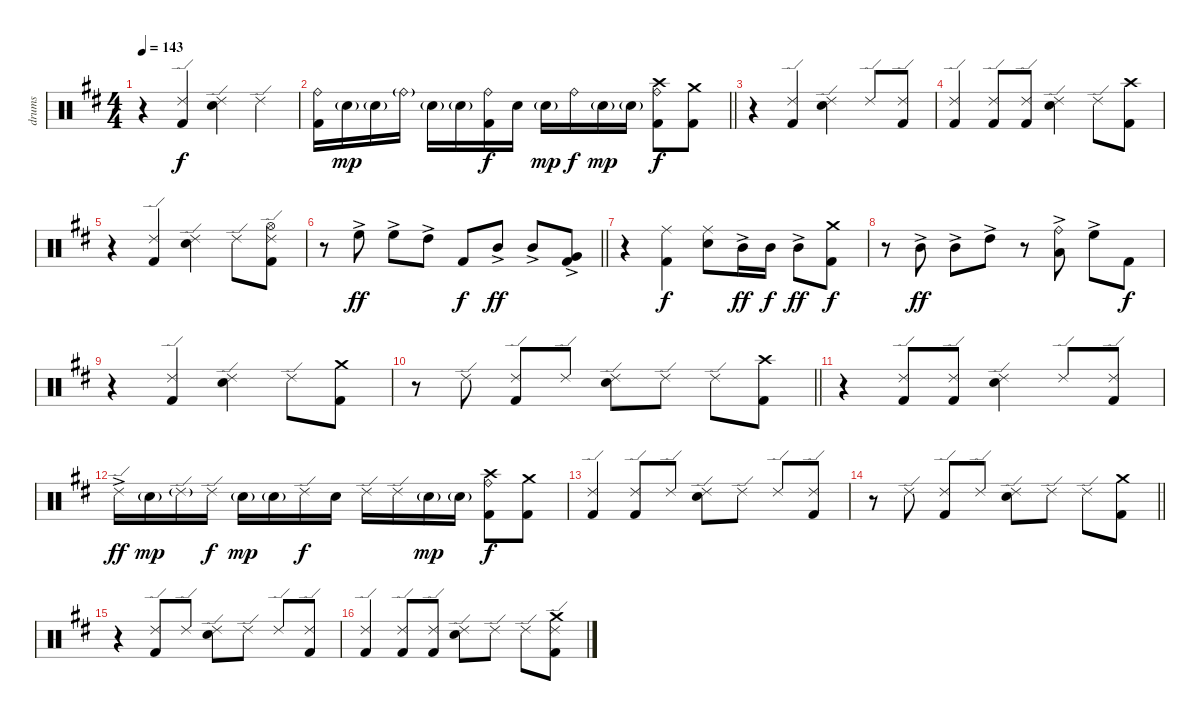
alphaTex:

\track ("drums" "drums") {instrument percussion}
\staff {score}
\articulation defaults
\ts (4 4)
\tempo 143
\clef neutral
\ks d
r.4{dy f} ("Ride (edge) 2" "Kick (hit) 2").4 ("Ride (edge) 2" "Electric Snare (hit)").4 "Ride (edge) 2".4 |
\barLineRight lightlight
("Ride (bell)" "Kick (hit) 2").16 "Electric Snare (hit)"{g}.16{dy mp} "Electric Snare (hit)"{g}.16 "Ride (bell)"{g}.16 "Electric Snare (hit)"{g}.16 "Electric Snare (hit)"{g}.16 ("Ride (bell)" "Kick (hit) 2").16{dy f} "Electric Snare (hit)".16 "Electric Snare (hit)"{g}.16{dy mp} "Ride (bell)".16{dy f} "Electric Snare (hit)"{g}.16{dy mp} "Electric Snare (hit)"{g}.16 ("Ride (bell)" "Crash high (hit)" "Kick (hit) 2").8{dy f} ("Crash medium (hit)" "Kick (hit) 2").8 |
r.4 ("Ride (edge) 2" "Kick (hit) 2").4 ("Ride (edge) 2" "Electric Snare (hit)").4 "Ride (edge) 2".8 ("Ride (edge) 2" "Kick (hit) 2").8 |
("Ride (edge) 2" "Kick (hit) 2").4 ("Ride (edge) 2" "Kick (hit) 2").8 ("Ride (edge) 2" "Kick (hit) 2").8 ("Ride (edge) 2" "Electric Snare (hit)").4 "Ride (edge) 2".8 ("Crash high (hit)" "Kick (hit) 2").8 |
r.4 ("Ride (edge) 2" "Kick (hit) 2").4 ("Ride (edge) 2" "Electric Snare (hit)").4 "Ride (edge) 2".8 ("Ride (edge) 2" "Hi-Hat (open)" "Kick (hit) 2").8 |
\barLineRight lightlight
r.8 "High Floor Tom (hit)"{ac}.8{dy ff} "High Floor Tom (hit)"{ac}.8 "High Tom (hit)"{ac}.8 "Kick (hit) 2".8{dy f} "Mid Tom (hit)"{ac}.8{dy ff} "Mid Tom (hit)"{ac}.8 ("Very Low Tom (hit)"{ac} "Kick (hit) 2").8 |
r.4 ("Ride (middle)" "Kick (hit) 2").4{dy f} ("Ride (middle)" "Electric Snare (hit)").8 "Mid Tom (hit)"{ac}.16{dy ff} "Mid Tom (hit)".16{dy f} "Mid Tom (hit)"{ac}.8{dy ff} ("Crash medium (hit)" "Kick (hit) 2").8{dy f} |
r.8 "Mid Tom (hit)"{ac}.8{dy ff} "Mid Tom (hit)"{ac}.8 "High Tom (hit)"{ac}.8 r.8 ("Ride (bell)" "Low Tom (hit)"{ac}).8 "High Floor Tom (hit)"{ac}.8 "Kick (hit) 2".8{dy f} |
r.4 ("Ride (edge) 2" "Kick (hit) 2").4 ("Ride (edge) 2" "Electric Snare (hit)").4 "Ride (edge) 2".8 ("Crash medium (hit)" "Kick (hit) 2").8 |
\barLineRight lightlight
r.8 "Ride (edge) 2".8 ("Ride (edge) 2" "Kick (hit) 2").8 "Ride (edge) 2".8 ("Ride (edge) 2" "Electric Snare (hit)").8 "Ride (edge) 2".8 "Ride (edge) 2".8 ("Crash high (hit)" "Kick (hit) 2").8 |
r.4 ("Ride (edge) 2" "Kick (hit) 2").8 ("Ride (edge) 2" "Kick (hit) 2").8 ("Ride (edge) 2" "Electric Snare (hit)").4 "Ride (edge) 2".8 ("Ride (edge) 2" "Kick (hit) 2").8 |
"Ride (edge) 2"{ac}.16{dy ff} "Electric Snare (hit)"{g}.16{dy mp} "Ride (edge) 2"{g}.16 "Ride (edge) 2".16{dy f} "Electric Snare (hit)"{g}.16{dy mp} "Electric Snare (hit)"{g}.16 "Ride (edge) 2".16{dy f} "Electric Snare (hit)".16 "Ride (edge) 2".16 "Ride (edge) 2".16 "Electric Snare (hit)"{g}.16{dy mp} "Electric Snare (hit)"{g}.16 ("Ride (bell)" "Crash high (hit)" "Kick (hit) 2").8{dy f} ("Crash medium (hit)" "Kick (hit) 2").8 |
("Ride (edge) 2" "Kick (hit) 2").4 ("Ride (edge) 2" "Kick (hit) 2").8 "Ride (edge) 2".8 ("Ride (edge) 2" "Electric Snare (hit)").8 "Ride (edge) 2".8 "Ride (edge) 2".8 ("Ride (edge) 2" "Kick (hit) 2").8 |
\barLineRight lightlight
r.8 "Ride (edge) 2".8 ("Ride (edge) 2" "Kick (hit) 2").8 "Ride (edge) 2".8 ("Ride (edge) 2" "Electric Snare (hit)").8 "Ride (edge) 2".8 "Ride (edge) 2".8 ("Crash medium (hit)" "Kick (hit) 2").8 |
r.4 ("Ride (edge) 2" "Kick (hit) 2").8 "Ride (edge) 2".8 ("Ride (edge) 2" "Electric Snare (hit)").8 "Ride (edge) 2".8 "Ride (edge) 2".8 ("Ride (edge) 2" "Kick (hit) 2").8 |
("Ride (edge) 2" "Kick (hit) 2").4 ("Ride (edge) 2" "Kick (hit) 2").8 ("Ride (edge) 2" "Kick (hit) 2").8 ("Ride (edge) 2" "Electric Snare (hit)").8 "Ride (edge) 2".8 "Ride (edge) 2".8 ("Ride (edge) 2" "Crash medium (hit)" "Kick (hit) 2").8
